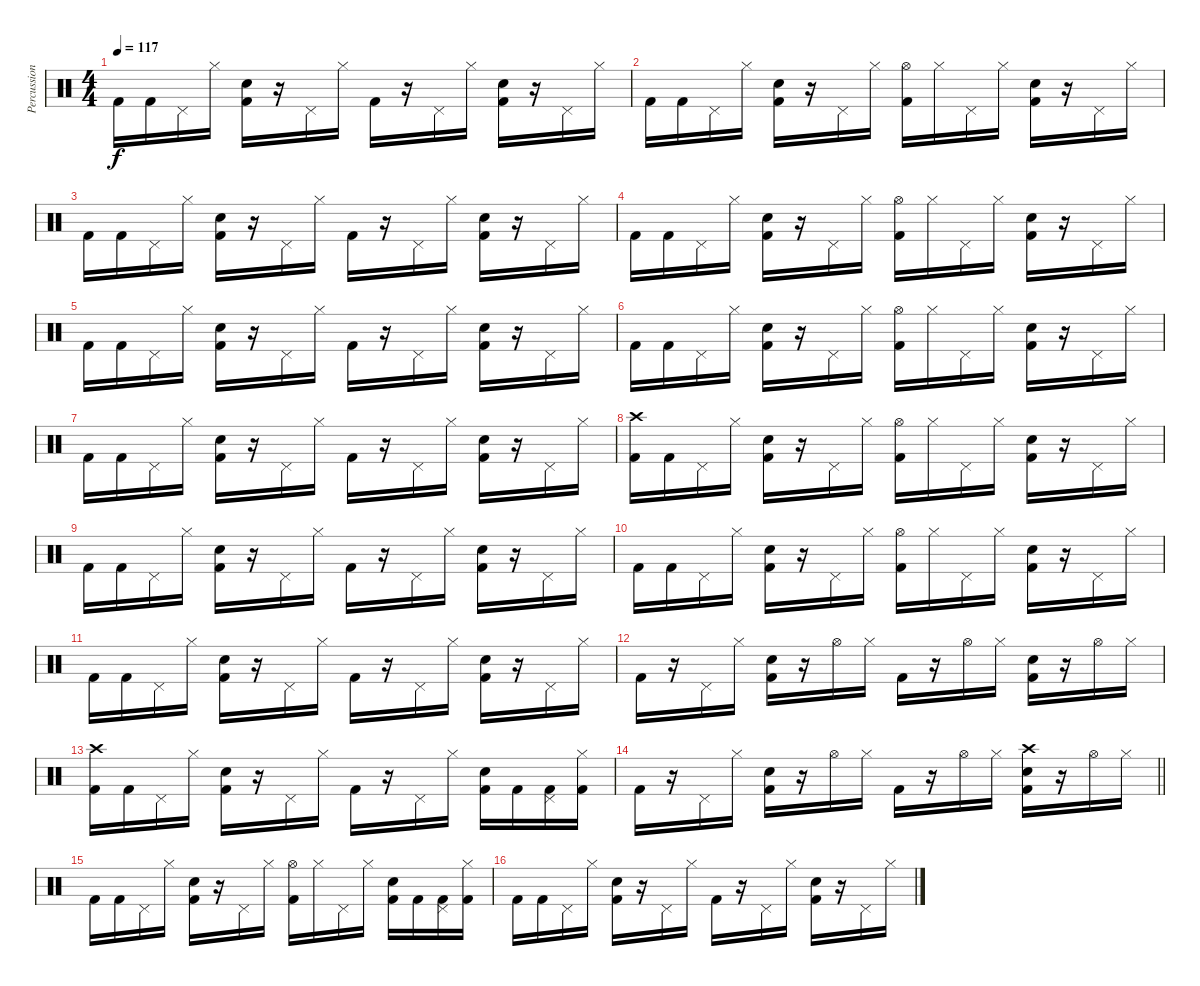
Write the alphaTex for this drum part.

\track ("Percussion" "Percussion") {instrument percussion}
\staff {score}
\articulation defaults
\ts (4 4)
\tempo 117
\clef neutral
\ks c "Kick (hit) 2".16{dy f} "Kick (hit) 2".16 "Pedal Hi-Hat (hit)".16 "Hi-Hat (closed)".16
("Snare (hit) 2" "Kick (hit) 2").16 r.16 "Pedal Hi-Hat (hit)".16 "Hi-Hat (closed)".16 "Kick (hit) 2".16 r.16 "Pedal Hi-Hat (hit)".16 "Hi-Hat (closed)".16 ("Snare (hit) 2" "Kick (hit) 2").16 r.16 "Pedal Hi-Hat (hit)".16 "Hi-Hat (closed)".16 |
"Kick (hit) 2".16 "Kick (hit) 2".16 "Pedal Hi-Hat (hit)".16 "Hi-Hat (closed)".16 ("Snare (hit) 2" "Kick (hit) 2").16 r.16 "Pedal Hi-Hat (hit)".16 "Hi-Hat (closed)".16 ("Hi-Hat (open)" "Kick (hit) 2").16 "Hi-Hat (closed)".16 "Pedal Hi-Hat (hit)".16 "Hi-Hat (closed)".16 ("Snare (hit) 2" "Kick (hit) 2").16 r.16 "Pedal Hi-Hat (hit)".16 "Hi-Hat (closed)".16 |
"Kick (hit) 2".16 "Kick (hit) 2".16 "Pedal Hi-Hat (hit)".16 "Hi-Hat (closed)".16 ("Snare (hit) 2" "Kick (hit) 2").16 r.16 "Pedal Hi-Hat (hit)".16 "Hi-Hat (closed)".16 "Kick (hit) 2".16 r.16 "Pedal Hi-Hat (hit)".16 "Hi-Hat (closed)".16 ("Snare (hit) 2" "Kick (hit) 2").16 r.16 "Pedal Hi-Hat (hit)".16 "Hi-Hat (closed)".16 |
"Kick (hit) 2".16 "Kick (hit) 2".16 "Pedal Hi-Hat (hit)".16 "Hi-Hat (closed)".16 ("Snare (hit) 2" "Kick (hit) 2").16 r.16 "Pedal Hi-Hat (hit)".16 "Hi-Hat (closed)".16 ("Hi-Hat (open)" "Kick (hit) 2").16 "Hi-Hat (closed)".16 "Pedal Hi-Hat (hit)".16 "Hi-Hat (closed)".16 ("Snare (hit) 2" "Kick (hit) 2").16 r.16 "Pedal Hi-Hat (hit)".16 "Hi-Hat (closed)".16 |
"Kick (hit) 2".16 "Kick (hit) 2".16 "Pedal Hi-Hat (hit)".16 "Hi-Hat (closed)".16 ("Snare (hit) 2" "Kick (hit) 2").16 r.16 "Pedal Hi-Hat (hit)".16 "Hi-Hat (closed)".16 "Kick (hit) 2".16 r.16 "Pedal Hi-Hat (hit)".16 "Hi-Hat (closed)".16 ("Snare (hit) 2" "Kick (hit) 2").16 r.16 "Pedal Hi-Hat (hit)".16 "Hi-Hat (closed)".16 |
"Kick (hit) 2".16 "Kick (hit) 2".16 "Pedal Hi-Hat (hit)".16 "Hi-Hat (closed)".16 ("Snare (hit) 2" "Kick (hit) 2").16 r.16 "Pedal Hi-Hat (hit)".16 "Hi-Hat (closed)".16 ("Hi-Hat (open)" "Kick (hit) 2").16 "Hi-Hat (closed)".16 "Pedal Hi-Hat (hit)".16 "Hi-Hat (closed)".16 ("Snare (hit) 2" "Kick (hit) 2").16 r.16 "Pedal Hi-Hat (hit)".16 "Hi-Hat (closed)".16 |
"Kick (hit) 2".16 "Kick (hit) 2".16 "Pedal Hi-Hat (hit)".16 "Hi-Hat (closed)".16 ("Snare (hit) 2" "Kick (hit) 2").16 r.16 "Pedal Hi-Hat (hit)".16 "Hi-Hat (closed)".16 "Kick (hit) 2".16 r.16 "Pedal Hi-Hat (hit)".16 "Hi-Hat (closed)".16 ("Snare (hit) 2" "Kick (hit) 2").16 r.16 "Pedal Hi-Hat (hit)".16 "Hi-Hat (closed)".16 |
("Crash high (hit)" "Kick (hit) 2").16 "Kick (hit) 2".16 "Pedal Hi-Hat (hit)".16 "Hi-Hat (closed)".16 ("Snare (hit) 2" "Kick (hit) 2").16 r.16 "Pedal Hi-Hat (hit)".16 "Hi-Hat (closed)".16 ("Hi-Hat (open)" "Kick (hit) 2").16 "Hi-Hat (closed)".16 "Pedal Hi-Hat (hit)".16 "Hi-Hat (closed)".16 ("Snare (hit) 2" "Kick (hit) 2").16 r.16 "Pedal Hi-Hat (hit)".16 "Hi-Hat (closed)".16 |
"Kick (hit) 2".16 "Kick (hit) 2".16 "Pedal Hi-Hat (hit)".16 "Hi-Hat (closed)".16 ("Snare (hit) 2" "Kick (hit) 2").16 r.16 "Pedal Hi-Hat (hit)".16 "Hi-Hat (closed)".16 "Kick (hit) 2".16 r.16 "Pedal Hi-Hat (hit)".16 "Hi-Hat (closed)".16 ("Snare (hit) 2" "Kick (hit) 2").16 r.16 "Pedal Hi-Hat (hit)".16 "Hi-Hat (closed)".16 |
"Kick (hit) 2".16 "Kick (hit) 2".16 "Pedal Hi-Hat (hit)".16 "Hi-Hat (closed)".16 ("Snare (hit) 2" "Kick (hit) 2").16 r.16 "Pedal Hi-Hat (hit)".16 "Hi-Hat (closed)".16 ("Hi-Hat (open)" "Kick (hit) 2").16 "Hi-Hat (closed)".16 "Pedal Hi-Hat (hit)".16 "Hi-Hat (closed)".16 ("Snare (hit) 2" "Kick (hit) 2").16 r.16 "Pedal Hi-Hat (hit)".16 "Hi-Hat (closed)".16 |
"Kick (hit) 2".16 "Kick (hit) 2".16 "Pedal Hi-Hat (hit)".16 "Hi-Hat (closed)".16 ("Snare (hit) 2" "Kick (hit) 2").16 r.16 "Pedal Hi-Hat (hit)".16 "Hi-Hat (closed)".16 "Kick (hit) 2".16 r.16 "Pedal Hi-Hat (hit)".16 "Hi-Hat (closed)".16 ("Snare (hit) 2" "Kick (hit) 2").16 r.16 "Pedal Hi-Hat (hit)".16 "Hi-Hat (closed)".16 |
"Kick (hit) 2".16 r.16 "Pedal Hi-Hat (hit)".16 "Hi-Hat (closed)".16 ("Snare (hit) 2" "Kick (hit) 2").16 r.16 "Hi-Hat (open)".16 "Hi-Hat (closed)".16 "Kick (hit) 2".16 r.16 "Hi-Hat (open)".16 "Hi-Hat (closed)".16 ("Snare (hit) 2" "Kick (hit) 2").16 r.16 "Hi-Hat (open)".16 "Hi-Hat (closed)".16 |
("Crash high (hit)" "Kick (hit) 2").16 "Kick (hit) 2".16 "Pedal Hi-Hat (hit)".16 "Hi-Hat (closed)".16 ("Snare (hit) 2" "Kick (hit) 2").16 r.16 "Pedal Hi-Hat (hit)".16 "Hi-Hat (closed)".16 "Kick (hit) 2".16 r.16 "Pedal Hi-Hat (hit)".16 "Hi-Hat (closed)".16 ("Snare (hit) 2" "Kick (hit) 2").16 "Kick (hit) 2".16 ("Pedal Hi-Hat (hit)" "Kick (hit) 2").16 ("Hi-Hat (closed)" "Kick (hit) 2").16 |
\barLineRight lightlight "Kick (hit) 2".16
r.16 "Pedal Hi-Hat (hit)".16 "Hi-Hat (closed)".16 ("Snare (hit) 2" "Kick (hit) 2").16 r.16 "Hi-Hat (open)".16 "Hi-Hat (closed)".16 "Kick (hit) 2".16 r.16 "Hi-Hat (open)".16 "Hi-Hat (closed)".16 ("Crash high (hit)" "Snare (hit) 2" "Kick (hit) 2").16 r.16 "Hi-Hat (open)".16 "Hi-Hat (closed)".16 |
"Kick (hit) 2".16 "Kick (hit) 2".16 "Pedal Hi-Hat (hit)".16 "Hi-Hat (closed)".16 ("Snare (hit) 2" "Kick (hit) 2").16 r.16 "Pedal Hi-Hat (hit)".16 "Hi-Hat (closed)".16 ("Hi-Hat (open)" "Kick (hit) 2").16 "Hi-Hat (closed)".16 "Pedal Hi-Hat (hit)".16 "Hi-Hat (closed)".16 ("Snare (hit) 2" "Kick (hit) 2").16 "Kick (hit) 2".16 ("Pedal Hi-Hat (hit)" "Kick (hit) 2").16 ("Hi-Hat (closed)" "Kick (hit) 2").16 |
"Kick (hit) 2".16 "Kick (hit) 2".16 "Pedal Hi-Hat (hit)".16 "Hi-Hat (closed)".16 ("Snare (hit) 2" "Kick (hit) 2").16 r.16 "Pedal Hi-Hat (hit)".16 "Hi-Hat (closed)".16 "Kick (hit) 2".16 r.16 "Pedal Hi-Hat (hit)".16 "Hi-Hat (closed)".16 ("Snare (hit) 2" "Kick (hit) 2").16 r.16 "Pedal Hi-Hat (hit)".16 "Hi-Hat (closed)".16
